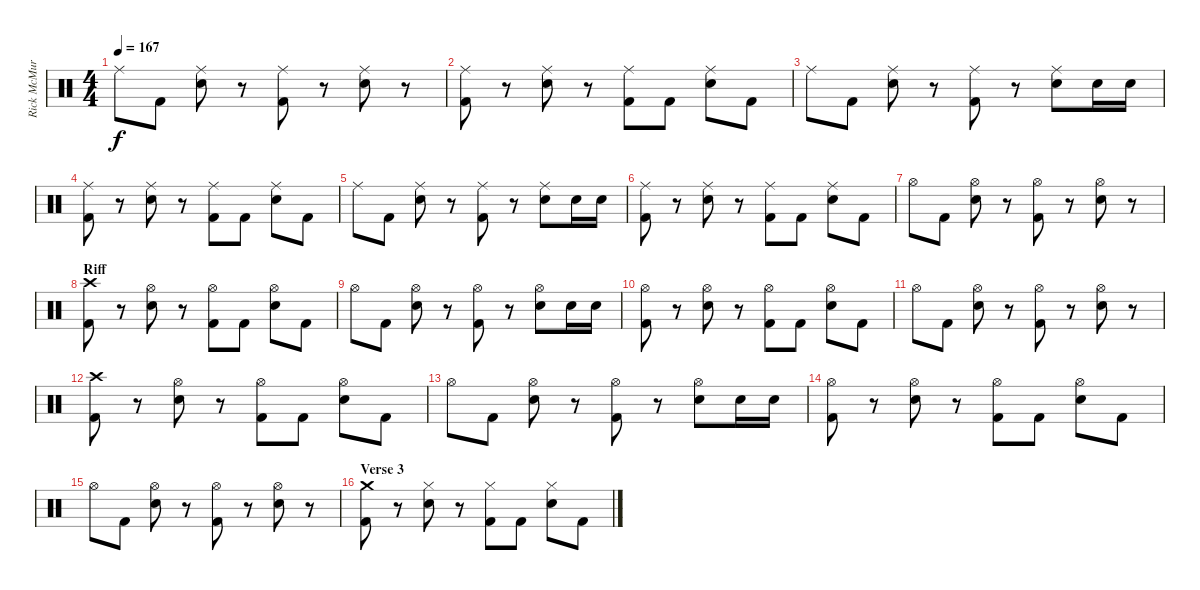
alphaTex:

\track ("Rick McMurray" "Rick McMur") {instrument percussion}
\staff {score}
\articulation defaults
\ts (4 4)
\tempo 167
\clef neutral
\ks c "Ride (middle)".8{dy f} "Kick (hit) 2".8
("Ride (middle)" "Electric Snare (hit)").8 r.8 ("Ride (middle)" "Kick (hit) 2").8 r.8 ("Ride (middle)" "Electric Snare (hit)").8 r.8 |
("Ride (middle)" "Kick (hit) 2").8 r.8 ("Ride (middle)" "Electric Snare (hit)").8 r.8 ("Ride (middle)" "Kick (hit) 2").8 "Kick (hit) 2".8 ("Ride (middle)" "Electric Snare (hit)").8 "Kick (hit) 2".8 |
"Ride (middle)".8 "Kick (hit) 2".8 ("Ride (middle)" "Electric Snare (hit)").8 r.8 ("Ride (middle)" "Kick (hit) 2").8 r.8 ("Ride (middle)" "Electric Snare (hit)").8 "Electric Snare (hit)".16 "Electric Snare (hit)".16 |
("Ride (middle)" "Kick (hit) 2").8 r.8 ("Ride (middle)" "Electric Snare (hit)").8 r.8 ("Ride (middle)" "Kick (hit) 2").8 "Kick (hit) 2".8 ("Ride (middle)" "Electric Snare (hit)").8 "Kick (hit) 2".8 |
"Ride (middle)".8 "Kick (hit) 2".8 ("Ride (middle)" "Electric Snare (hit)").8 r.8 ("Ride (middle)" "Kick (hit) 2").8 r.8 ("Ride (middle)" "Electric Snare (hit)").8 "Electric Snare (hit)".16 "Electric Snare (hit)".16 |
("Ride (middle)" "Kick (hit) 2").8 r.8 ("Ride (middle)" "Electric Snare (hit)").8 r.8 ("Ride (middle)" "Kick (hit) 2").8 "Kick (hit) 2".8 ("Ride (middle)" "Electric Snare (hit)").8 "Kick (hit) 2".8 |
"Hi-Hat (open)".8 "Kick (hit) 2".8 ("Hi-Hat (open)" "Electric Snare (hit)").8 r.8 ("Hi-Hat (open)" "Kick (hit) 2").8 r.8 ("Hi-Hat (open)" "Electric Snare (hit)").8 r.8 |
\section ("" "Riff")
("Crash high (hit)" "Kick (hit) 2").8 r.8 ("Hi-Hat (open)" "Electric Snare (hit)").8 r.8 ("Hi-Hat (open)" "Kick (hit) 2").8 "Kick (hit) 2".8 ("Hi-Hat (open)" "Electric Snare (hit)").8 "Kick (hit) 2".8 |
"Hi-Hat (open)".8 "Kick (hit) 2".8 ("Hi-Hat (open)" "Electric Snare (hit)").8 r.8 ("Hi-Hat (open)" "Kick (hit) 2").8 r.8 ("Hi-Hat (open)" "Electric Snare (hit)").8 "Electric Snare (hit)".16 "Electric Snare (hit)".16 |
("Hi-Hat (open)" "Kick (hit) 2").8 r.8 ("Hi-Hat (open)" "Electric Snare (hit)").8 r.8 ("Hi-Hat (open)" "Kick (hit) 2").8 "Kick (hit) 2".8 ("Hi-Hat (open)" "Electric Snare (hit)").8 "Kick (hit) 2".8 |
"Hi-Hat (open)".8 "Kick (hit) 2".8 ("Hi-Hat (open)" "Electric Snare (hit)").8 r.8 ("Hi-Hat (open)" "Kick (hit) 2").8 r.8 ("Hi-Hat (open)" "Electric Snare (hit)").8 r.8 |
("Crash high (hit)" "Kick (hit) 2").8 r.8 ("Hi-Hat (open)" "Electric Snare (hit)").8 r.8 ("Hi-Hat (open)" "Kick (hit) 2").8 "Kick (hit) 2".8 ("Hi-Hat (open)" "Electric Snare (hit)").8 "Kick (hit) 2".8 |
"Hi-Hat (open)".8 "Kick (hit) 2".8 ("Hi-Hat (open)" "Electric Snare (hit)").8 r.8 ("Hi-Hat (open)" "Kick (hit) 2").8 r.8 ("Hi-Hat (open)" "Electric Snare (hit)").8 "Electric Snare (hit)".16 "Electric Snare (hit)".16 |
("Hi-Hat (open)" "Kick (hit) 2").8 r.8 ("Hi-Hat (open)" "Electric Snare (hit)").8 r.8 ("Hi-Hat (open)" "Kick (hit) 2").8 "Kick (hit) 2".8 ("Hi-Hat (open)" "Electric Snare (hit)").8 "Kick (hit) 2".8 |
"Hi-Hat (open)".8 "Kick (hit) 2".8 ("Hi-Hat (open)" "Electric Snare (hit)").8 r.8 ("Hi-Hat (open)" "Kick (hit) 2").8 r.8 ("Hi-Hat (open)" "Electric Snare (hit)").8 r.8 |
\section ("" "Verse 3")
("Crash medium (hit)" "Kick (hit) 2").8 r.8 ("Hi-Hat (closed)" "Electric Snare (hit)").8 r.8 ("Hi-Hat (closed)" "Kick (hit) 2").8 "Kick (hit) 2".8 ("Hi-Hat (closed)" "Electric Snare (hit)").8 "Kick (hit) 2".8
